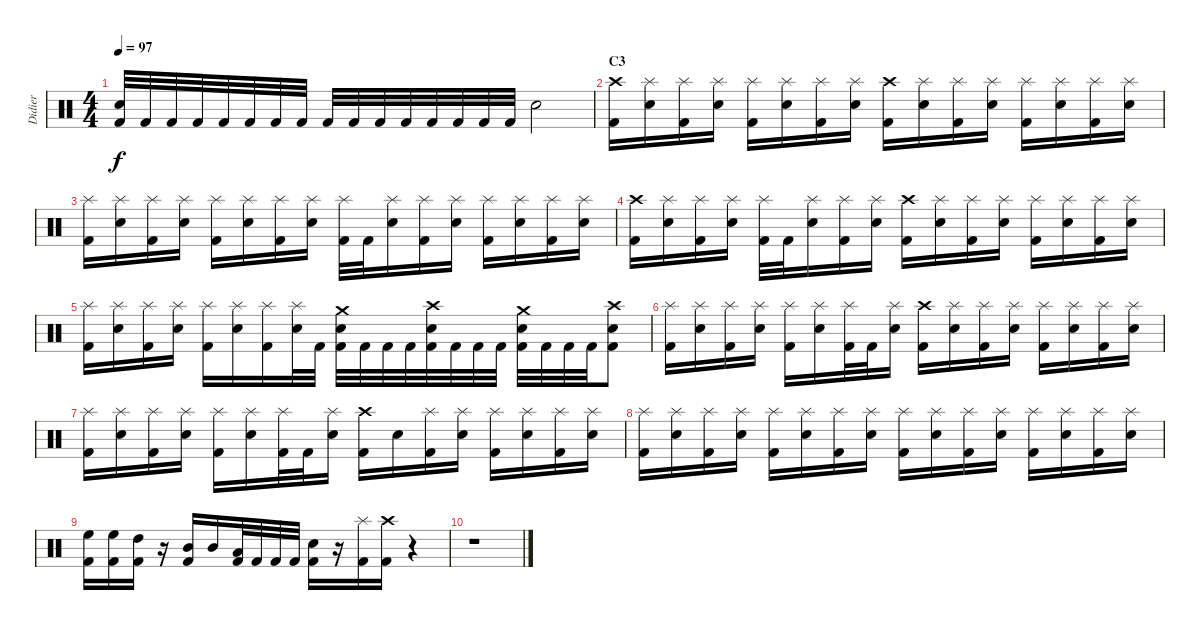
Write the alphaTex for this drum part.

\track ("Didier" "Didier") {instrument percussion}
\staff {score}
\articulation defaults
\ts (4 4)
\tempo 97
\clef neutral
\ks c
("Snare (hit) 2" "Kick (hit) 2").32{dy f} "Kick (hit) 2".32 "Kick (hit) 2".32 "Kick (hit) 2".32 "Kick (hit) 2".32 "Kick (hit) 2".32 "Kick (hit) 2".32 "Kick (hit) 2".32 "Kick (hit) 2".32 "Kick (hit) 2".32 "Kick (hit) 2".32 "Kick (hit) 2".32 "Kick (hit) 2".32 "Kick (hit) 2".32 "Kick (hit) 2".32 "Kick (hit) 2".32 "Snare (hit) 2".2 |
\section ("" "C3")
("Crash high (hit)" "Kick (hit) 2").16 ("Splash (hit)" "Snare (hit) 2").16 ("Splash (hit)" "Kick (hit) 2").16 ("Splash (hit)" "Snare (hit) 2").16 ("Splash (hit)" "Kick (hit) 2").16 ("Splash (hit)" "Snare (hit) 2").16 ("Splash (hit)" "Kick (hit) 2").16 ("Splash (hit)" "Snare (hit) 2").16 ("Crash high (hit)" "Kick (hit) 2").16 ("Splash (hit)" "Snare (hit) 2").16 ("Splash (hit)" "Kick (hit) 2").16 ("Splash (hit)" "Snare (hit) 2").16 ("Splash (hit)" "Kick (hit) 2").16 ("Splash (hit)" "Snare (hit) 2").16 ("Splash (hit)" "Kick (hit) 2").16 ("Splash (hit)" "Snare (hit) 2").16 |
("Splash (hit)" "Kick (hit) 2").16 ("Splash (hit)" "Snare (hit) 2").16 ("Splash (hit)" "Kick (hit) 2").16 ("Splash (hit)" "Snare (hit) 2").16 ("Splash (hit)" "Kick (hit) 2").16 ("Splash (hit)" "Snare (hit) 2").16 ("Splash (hit)" "Kick (hit) 2").16 ("Splash (hit)" "Snare (hit) 2").16 ("Splash (hit)" "Kick (hit) 2").32 "Kick (hit) 2".32 ("Splash (hit)" "Snare (hit) 2").16 ("Splash (hit)" "Kick (hit) 2").16 ("Splash (hit)" "Snare (hit) 2").16 ("Splash (hit)" "Kick (hit) 2").16 ("Splash (hit)" "Snare (hit) 2").16 ("Splash (hit)" "Kick (hit) 2").16 ("Splash (hit)" "Snare (hit) 2").16 |
("Crash high (hit)" "Kick (hit) 2").16 ("Splash (hit)" "Snare (hit) 2").16 ("Splash (hit)" "Kick (hit) 2").16 ("Splash (hit)" "Snare (hit) 2").16 ("Splash (hit)" "Kick (hit) 2").32 "Kick (hit) 2".32 ("Splash (hit)" "Snare (hit) 2").16 ("Splash (hit)" "Kick (hit) 2").16 ("Splash (hit)" "Snare (hit) 2").16 ("Crash high (hit)" "Kick (hit) 2").16 ("Splash (hit)" "Snare (hit) 2").16 ("Splash (hit)" "Kick (hit) 2").16 ("Splash (hit)" "Snare (hit) 2").16 ("Splash (hit)" "Kick (hit) 2").16 ("Splash (hit)" "Snare (hit) 2").16 ("Splash (hit)" "Kick (hit) 2").16 ("Splash (hit)" "Snare (hit) 2").16 |
("Splash (hit)" "Kick (hit) 2").16 ("Splash (hit)" "Snare (hit) 2").16 ("Splash (hit)" "Kick (hit) 2").16 ("Splash (hit)" "Snare (hit) 2").16 ("Splash (hit)" "Kick (hit) 2").16 ("Splash (hit)" "Snare (hit) 2").16 ("Splash (hit)" "Kick (hit) 2").16 ("Splash (hit)" "Snare (hit) 2").32 "Kick (hit) 2".32 ("Crash medium (hit)" "Snare (hit) 2" "Kick (hit) 2").32 "Kick (hit) 2".32 "Kick (hit) 2".32 "Kick (hit) 2".32 ("Crash high (hit)" "Snare (hit) 2" "Kick (hit) 2").32 "Kick (hit) 2".32 "Kick (hit) 2".32 "Kick (hit) 2".32 ("Crash medium (hit)" "Snare (hit) 2" "Kick (hit) 2").32 "Kick (hit) 2".32 "Kick (hit) 2".32 "Kick (hit) 2".32 ("Crash high (hit)" "Snare (hit) 2" "Kick (hit) 2").8 |
("Splash (hit)" "Kick (hit) 2").16 ("Splash (hit)" "Snare (hit) 2").16 ("Splash (hit)" "Kick (hit) 2").16 ("Splash (hit)" "Snare (hit) 2").16 ("Splash (hit)" "Kick (hit) 2").16 ("Splash (hit)" "Snare (hit) 2").16 ("Splash (hit)" "Kick (hit) 2").32 "Kick (hit) 2".32 ("Splash (hit)" "Snare (hit) 2").16 ("Crash high (hit)" "Kick (hit) 2").16 ("Splash (hit)" "Snare (hit) 2").16 ("Splash (hit)" "Kick (hit) 2").16 ("Splash (hit)" "Snare (hit) 2").16 ("Splash (hit)" "Kick (hit) 2").16 ("Splash (hit)" "Snare (hit) 2").16 ("Splash (hit)" "Kick (hit) 2").16 ("Splash (hit)" "Snare (hit) 2").16 |
("Splash (hit)" "Kick (hit) 2").16 ("Splash (hit)" "Snare (hit) 2").16 ("Splash (hit)" "Kick (hit) 2").16 ("Splash (hit)" "Snare (hit) 2").16 ("Splash (hit)" "Kick (hit) 2").16 ("Splash (hit)" "Snare (hit) 2").16 ("Splash (hit)" "Kick (hit) 2").32 "Kick (hit) 2".32 ("Splash (hit)" "Snare (hit) 2").16 ("Crash high (hit)" "Kick (hit) 2").16 "Snare (hit) 2".16 ("Splash (hit)" "Kick (hit) 2").16 ("Splash (hit)" "Snare (hit) 2").16 ("Splash (hit)" "Kick (hit) 2").16 ("Splash (hit)" "Snare (hit) 2").16 ("Splash (hit)" "Kick (hit) 2").16 ("Splash (hit)" "Snare (hit) 2").16 |
("Splash (hit)" "Kick (hit) 2").16 ("Splash (hit)" "Snare (hit) 2").16 ("Splash (hit)" "Kick (hit) 2").16 ("Splash (hit)" "Snare (hit) 2").16 ("Splash (hit)" "Kick (hit) 2").16 ("Splash (hit)" "Snare (hit) 2").16 ("Splash (hit)" "Kick (hit) 2").16 ("Splash (hit)" "Snare (hit) 2").16 ("Splash (hit)" "Kick (hit) 2").16 ("Splash (hit)" "Snare (hit) 2").16 ("Splash (hit)" "Kick (hit) 2").16 ("Splash (hit)" "Snare (hit) 2").16 ("Splash (hit)" "Kick (hit) 2").16 ("Splash (hit)" "Snare (hit) 2").16 ("Splash (hit)" "Kick (hit) 2").16 ("Splash (hit)" "Snare (hit) 2").16 |
("High Floor Tom (hit)" "Kick (hit) 2").16 ("High Floor Tom (hit)" "Kick (hit) 2").16 ("High Tom (hit)" "Kick (hit) 2").16 r.16 ("Mid Tom (hit)" "Kick (hit) 2").16 "Mid Tom (hit)".16 ("Low Tom (hit)" "Kick (hit) 2").32 "Kick (hit) 2".32 "Kick (hit) 2".32 "Kick (hit) 2".32 ("Snare (hit) 2" "Kick (hit) 2").16 r.16 ("Splash (hit)" "Kick (hit) 2").16 ("Crash high (hit)" "Kick (hit) 2").16 r.4 |
r.1
